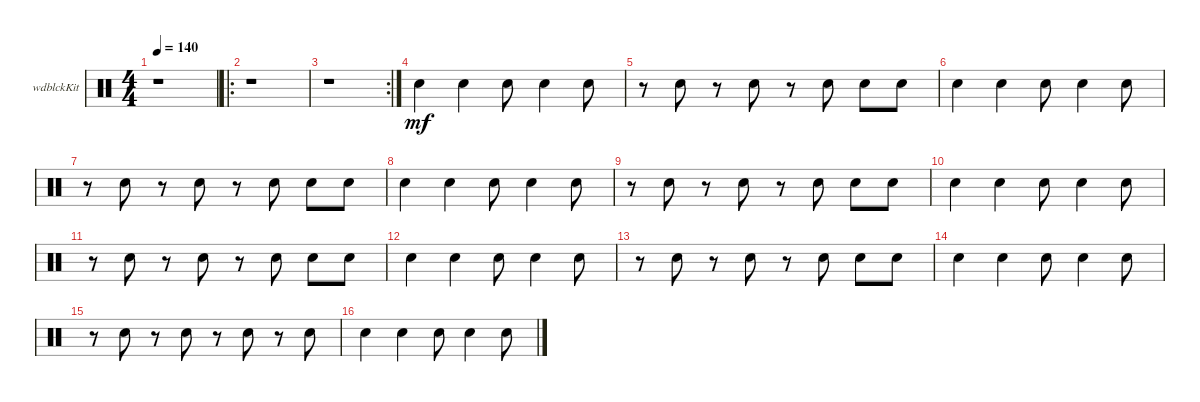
\defaultSystemsLayout 4
\bracketExtendMode groupsimilarinstruments
\firstSystemTrackNameOrientation horizontal
\otherSystemsTrackNameOrientation horizontal
\track ("Woodblock" "wdblckKit") {instrument percussion}
\staff {score}
\articulation defaults
\ts (4 4)
\tempo 140
\clef neutral
\scale
0.280654
\ks c
r.1{dy mf} |
\ro
\scale
0.190736 r.1 |
\rc 2
\scale
0.174387 r.1 |
\scale
0.354223 "Snare (hit) 2".4 "Snare (hit) 2".4 "Snare (hit) 2".8 "Snare (hit) 2".4 "Snare (hit) 2".8 |
\scale
0.275862 r.8 "Snare (hit) 2".8 r.8 "Snare (hit) 2".8 r.8 "Snare (hit) 2".8 "Snare (hit) 2".8 "Snare (hit) 2".8 |
\scale
0.224138 "Snare (hit) 2".4 "Snare (hit) 2".4 "Snare (hit) 2".8 "Snare (hit) 2".4 "Snare (hit) 2".8 |
\scale
0.275862 r.8 "Snare (hit) 2".8 r.8 "Snare (hit) 2".8 r.8 "Snare (hit) 2".8 "Snare (hit) 2".8 "Snare (hit) 2".8 |
\scale
0.224138 "Snare (hit) 2".4 "Snare (hit) 2".4 "Snare (hit) 2".8 "Snare (hit) 2".4 "Snare (hit) 2".8 |
\scale
0.275862 r.8 "Snare (hit) 2".8 r.8 "Snare (hit) 2".8 r.8 "Snare (hit) 2".8 "Snare (hit) 2".8 "Snare (hit) 2".8 |
\scale
0.224138 "Snare (hit) 2".4 "Snare (hit) 2".4 "Snare (hit) 2".8 "Snare (hit) 2".4 "Snare (hit) 2".8 |
\scale
0.275862 r.8 "Snare (hit) 2".8 r.8 "Snare (hit) 2".8 r.8 "Snare (hit) 2".8 "Snare (hit) 2".8 "Snare (hit) 2".8 |
\scale
0.224138 "Snare (hit) 2".4 "Snare (hit) 2".4 "Snare (hit) 2".8 "Snare (hit) 2".4 "Snare (hit) 2".8 |
\scale
0.275862 r.8 "Snare (hit) 2".8 r.8 "Snare (hit) 2".8 r.8 "Snare (hit) 2".8 "Snare (hit) 2".8 "Snare (hit) 2".8 |
\scale
0.224138 "Snare (hit) 2".4 "Snare (hit) 2".4 "Snare (hit) 2".8 "Snare (hit) 2".4 "Snare (hit) 2".8 |
\scale
0.275862 r.8 "Snare (hit) 2".8 r.8 "Snare (hit) 2".8 r.8 "Snare (hit) 2".8 r.8 "Snare (hit) 2".8 |
\scale
0.224138 "Snare (hit) 2".4 "Snare (hit) 2".4 "Snare (hit) 2".8 "Snare (hit) 2".4 "Snare (hit) 2".8
